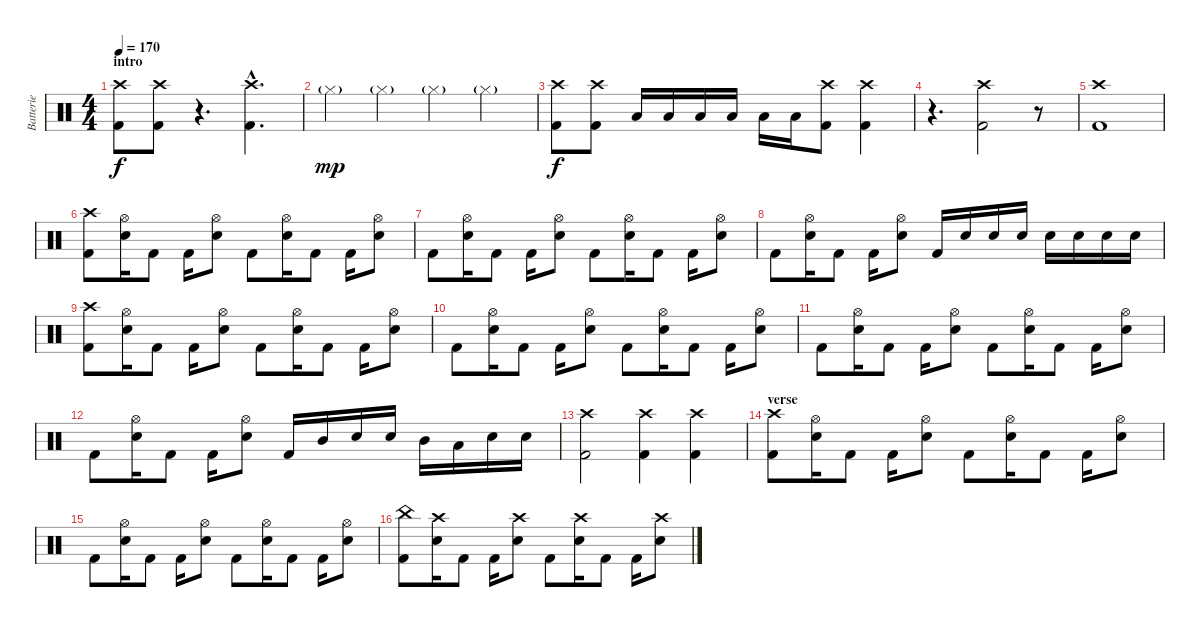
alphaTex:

\track ("Batterie" "Batterie") {instrument percussion}
\staff {score}
\articulation defaults
\ts (4 4)
\section ("" "intro")
\tempo 170
\clef neutral
\ks c
("Crash high (hit)" "Kick (hit) 2").8{dy f} ("Crash high (hit)" "Kick (hit) 2").8 r.4{d} ("Crash high (hit)"{hac} "Kick (hit) 2"{hac}).4{d} |
"Hi-Hat (closed)"{g}.4{dy mp} "Hi-Hat (closed)"{g}.4 "Hi-Hat (closed)"{g}.4 "Hi-Hat (closed)"{g}.4 |
("Crash high (hit)" "Kick (hit) 2").8{dy f} ("Crash high (hit)" "Kick (hit) 2").8 "Low Tom (hit)".16 "Low Tom (hit)".16 "Low Tom (hit)".16 "Low Tom (hit)".16 "Low Tom (hit)".16 "Low Tom (hit)".16 ("Crash high (hit)" "Kick (hit) 2").8 ("Crash high (hit)" "Kick (hit) 2").4 |
r.4{d} ("Crash high (hit)" "Kick (hit) 2").2 r.8 |
("Crash high (hit)" "Kick (hit) 2").1 |
("Crash high (hit)" "Kick (hit) 2").8 ("Hi-Hat (open)" "Electric Snare (hit)").16 "Kick (hit) 2".8 "Kick (hit) 2".16 ("Hi-Hat (open)" "Electric Snare (hit)").8 "Kick (hit) 2".8 ("Hi-Hat (open)" "Electric Snare (hit)").16 "Kick (hit) 2".8 "Kick (hit) 2".16 ("Hi-Hat (open)" "Electric Snare (hit)").8 |
"Kick (hit) 2".8 ("Hi-Hat (open)" "Electric Snare (hit)").16 "Kick (hit) 2".8 "Kick (hit) 2".16 ("Hi-Hat (open)" "Electric Snare (hit)").8 "Kick (hit) 2".8 ("Hi-Hat (open)" "Electric Snare (hit)").16 "Kick (hit) 2".8 "Kick (hit) 2".16 ("Hi-Hat (open)" "Electric Snare (hit)").8 |
"Kick (hit) 2".8 ("Hi-Hat (open)" "Electric Snare (hit)").16 "Kick (hit) 2".8 "Kick (hit) 2".16 ("Hi-Hat (open)" "Electric Snare (hit)").8 "Kick (hit) 2".16 "Electric Snare (hit)".16 "Electric Snare (hit)".16 "Electric Snare (hit)".16 "Electric Snare (hit)".16 "Electric Snare (hit)".16 "Electric Snare (hit)".16 "Electric Snare (hit)".16 |
("Crash high (hit)" "Kick (hit) 2").8 ("Hi-Hat (open)" "Electric Snare (hit)").16 "Kick (hit) 2".8 "Kick (hit) 2".16 ("Hi-Hat (open)" "Electric Snare (hit)").8 "Kick (hit) 2".8 ("Hi-Hat (open)" "Electric Snare (hit)").16 "Kick (hit) 2".8 "Kick (hit) 2".16 ("Hi-Hat (open)" "Electric Snare (hit)").8 |
"Kick (hit) 2".8 ("Hi-Hat (open)" "Electric Snare (hit)").16 "Kick (hit) 2".8 "Kick (hit) 2".16 ("Hi-Hat (open)" "Electric Snare (hit)").8 "Kick (hit) 2".8 ("Hi-Hat (open)" "Electric Snare (hit)").16 "Kick (hit) 2".8 "Kick (hit) 2".16 ("Hi-Hat (open)" "Electric Snare (hit)").8 |
"Kick (hit) 2".8 ("Hi-Hat (open)" "Electric Snare (hit)").16 "Kick (hit) 2".8 "Kick (hit) 2".16 ("Hi-Hat (open)" "Electric Snare (hit)").8 "Kick (hit) 2".8 ("Hi-Hat (open)" "Electric Snare (hit)").16 "Kick (hit) 2".8 "Kick (hit) 2".16 ("Hi-Hat (open)" "Electric Snare (hit)").8 |
"Kick (hit) 2".8 ("Hi-Hat (open)" "Electric Snare (hit)").16 "Kick (hit) 2".8 "Kick (hit) 2".16 ("Hi-Hat (open)" "Electric Snare (hit)").8 "Kick (hit) 2".16 "Mid Tom (hit)".16 "Electric Snare (hit)".16 "Electric Snare (hit)".16 "Mid Tom (hit)".16 "Low Tom (hit)".16 "Electric Snare (hit)".16 "Electric Snare (hit)".16 |
("Crash high (hit)" "Kick (hit) 2").2 ("Crash high (hit)" "Kick (hit) 2").4 ("Crash high (hit)" "Kick (hit) 2").4 |
\section ("" "verse")
("Crash high (hit)" "Kick (hit) 2").8 ("Hi-Hat (open)" "Electric Snare (hit)").16 "Kick (hit) 2".8 "Kick (hit) 2".16 ("Hi-Hat (open)" "Electric Snare (hit)").8 "Kick (hit) 2".8 ("Hi-Hat (open)" "Electric Snare (hit)").16 "Kick (hit) 2".8 "Kick (hit) 2".16 ("Hi-Hat (open)" "Electric Snare (hit)").8 |
"Kick (hit) 2".8 ("Hi-Hat (open)" "Electric Snare (hit)").16 "Kick (hit) 2".8 "Kick (hit) 2".16 ("Hi-Hat (open)" "Electric Snare (hit)").8 "Kick (hit) 2".8 ("Hi-Hat (open)" "Electric Snare (hit)").16 "Kick (hit) 2".8 "Kick (hit) 2".16 ("Hi-Hat (open)" "Electric Snare (hit)").8 |
("China (hit)" "Kick (hit) 2").8 ("Crash high (hit)" "Electric Snare (hit)").16 "Kick (hit) 2".8 "Kick (hit) 2".16 ("Crash high (hit)" "Electric Snare (hit)").8 "Kick (hit) 2".8 ("Crash high (hit)" "Electric Snare (hit)").16 "Kick (hit) 2".8 "Kick (hit) 2".16 ("Crash high (hit)" "Electric Snare (hit)").8
